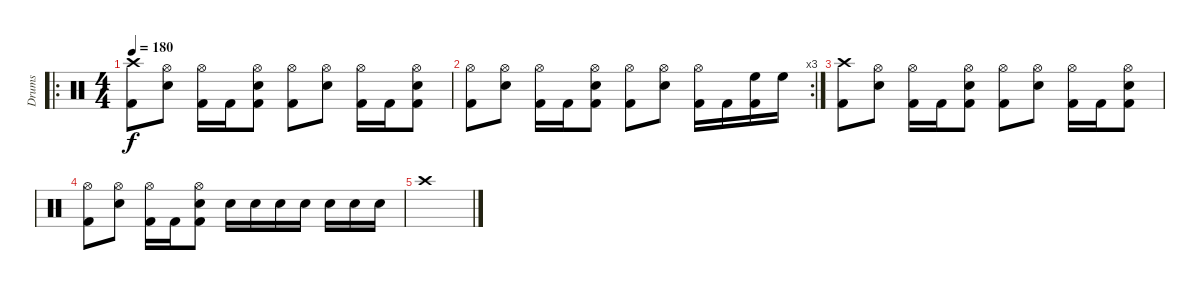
\track ("Drums" "Drums") {instrument percussion}
\staff {score}
\articulation defaults
\ro
\ts (4 4)
\tempo 180
\clef neutral
\ks c
("Crash high (hit)" "Kick (hit) 2").8{dy f} ("Hi-Hat (open)" "Snare (hit) 2").8 ("Hi-Hat (open)" "Kick (hit) 2").16 "Kick (hit) 2".16 ("Hi-Hat (open)" "Snare (hit) 2" "Kick (hit) 2").8 ("Hi-Hat (open)" "Kick (hit) 2").8 ("Hi-Hat (open)" "Snare (hit) 2").8 ("Hi-Hat (open)" "Kick (hit) 2").16 "Kick (hit) 2".16 ("Hi-Hat (open)" "Snare (hit) 2" "Kick (hit) 2").8 |
\rc 3
("Hi-Hat (open)" "Kick (hit) 2").8 ("Hi-Hat (open)" "Snare (hit) 2").8 ("Hi-Hat (open)" "Kick (hit) 2").16 "Kick (hit) 2".16 ("Hi-Hat (open)" "Snare (hit) 2" "Kick (hit) 2").8 ("Hi-Hat (open)" "Kick (hit) 2").8 ("Hi-Hat (open)" "Snare (hit) 2").8 ("Hi-Hat (open)" "Kick (hit) 2").16 "Kick (hit) 2".16 ("High Floor Tom (hit)" "Kick (hit) 2").16 "High Floor Tom (hit)".16 |
("Crash high (hit)" "Kick (hit) 2").8 ("Hi-Hat (open)" "Snare (hit) 2").8 ("Hi-Hat (open)" "Kick (hit) 2").16 "Kick (hit) 2".16 ("Hi-Hat (open)" "Snare (hit) 2" "Kick (hit) 2").8 ("Hi-Hat (open)" "Kick (hit) 2").8 ("Hi-Hat (open)" "Snare (hit) 2").8 ("Hi-Hat (open)" "Kick (hit) 2").16 "Kick (hit) 2".16 ("Hi-Hat (open)" "Snare (hit) 2" "Kick (hit) 2").8 |
("Hi-Hat (open)" "Kick (hit) 2").8 ("Hi-Hat (open)" "Snare (hit) 2").8 ("Hi-Hat (open)" "Kick (hit) 2").16 "Kick (hit) 2".16 ("Hi-Hat (open)" "Snare (hit) 2" "Kick (hit) 2").8 "Snare (hit) 2".16 "Snare (hit) 2".16 "Snare (hit) 2".16 "Snare (hit) 2".16 "Snare (hit) 2".16 "Snare (hit) 2".16 "Snare (hit) 2".16 |
"Crash high (hit)".1
